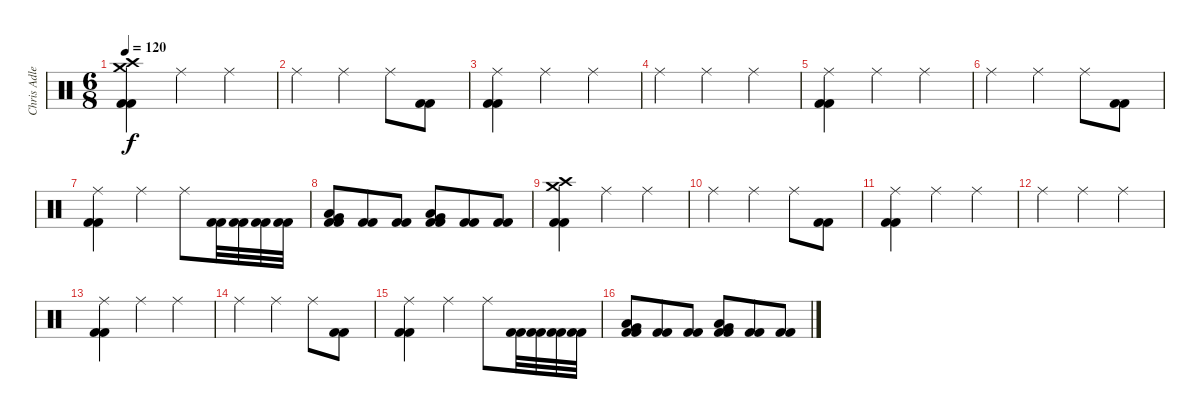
\track ("Chris Adler" "Chris Adle") {instrument percussion}
\staff {score}
\articulation defaults
\ts (6 8)
\tempo 120
\clef neutral
\ks c
("Crash medium (hit)" "Crash high (hit)" "Kick (hit) 2" "Kick (hit) 2").4{dy f} "Ride (middle)".4 "Ride (middle)".4 |
"Ride (middle)".4 "Ride (middle)".4 "Ride (middle)".8 ("Kick (hit) 2" "Kick (hit) 2").8 |
("Ride (middle)" "Kick (hit) 2" "Kick (hit) 2").4 "Ride (middle)".4 "Ride (middle)".4 |
"Ride (middle)".4 "Ride (middle)".4 "Ride (middle)".4 |
("Ride (middle)" "Kick (hit) 2" "Kick (hit) 2").4 "Ride (middle)".4 "Ride (middle)".4 |
"Ride (middle)".4 "Ride (middle)".4 "Ride (middle)".8 ("Kick (hit) 2" "Kick (hit) 2").8 |
("Ride (middle)" "Kick (hit) 2" "Kick (hit) 2").4 "Ride (middle)".4 "Ride (middle)".8 ("Kick (hit) 2" "Kick (hit) 2").32 ("Kick (hit) 2" "Kick (hit) 2").32 ("Kick (hit) 2" "Kick (hit) 2").32 ("Kick (hit) 2" "Kick (hit) 2").32 |
("Low Tom (hit)" "Very Low Tom (hit)" "Kick (hit) 2" "Kick (hit) 2").8 ("Kick (hit) 2" "Kick (hit) 2").8 ("Kick (hit) 2" "Kick (hit) 2").8 ("Very Low Tom (hit)" "Low Floor Tom (hit)" "Kick (hit) 2" "Kick (hit) 2").8 ("Kick (hit) 2" "Kick (hit) 2").8 ("Kick (hit) 2" "Kick (hit) 2").8 |
("Crash medium (hit)" "Crash high (hit)" "Kick (hit) 2" "Kick (hit) 2").4 "Ride (middle)".4 "Ride (middle)".4 |
"Ride (middle)".4 "Ride (middle)".4 "Ride (middle)".8 ("Kick (hit) 2" "Kick (hit) 2").8 |
("Ride (middle)" "Kick (hit) 2" "Kick (hit) 2").4 "Ride (middle)".4 "Ride (middle)".4 |
"Ride (middle)".4 "Ride (middle)".4 "Ride (middle)".4 |
("Ride (middle)" "Kick (hit) 2" "Kick (hit) 2").4 "Ride (middle)".4 "Ride (middle)".4 |
"Ride (middle)".4 "Ride (middle)".4 "Ride (middle)".8 ("Kick (hit) 2" "Kick (hit) 2").8 |
("Ride (middle)" "Kick (hit) 2" "Kick (hit) 2").4 "Ride (middle)".4 "Ride (middle)".8 ("Kick (hit) 2" "Kick (hit) 2").32 ("Kick (hit) 2" "Kick (hit) 2").32 ("Kick (hit) 2" "Kick (hit) 2").32 ("Kick (hit) 2" "Kick (hit) 2").32 |
("Low Tom (hit)" "Very Low Tom (hit)" "Kick (hit) 2" "Kick (hit) 2").8 ("Kick (hit) 2" "Kick (hit) 2").8 ("Kick (hit) 2" "Kick (hit) 2").8 ("Very Low Tom (hit)" "Low Floor Tom (hit)" "Kick (hit) 2" "Kick (hit) 2").8 ("Kick (hit) 2" "Kick (hit) 2").8 ("Kick (hit) 2" "Kick (hit) 2").8
